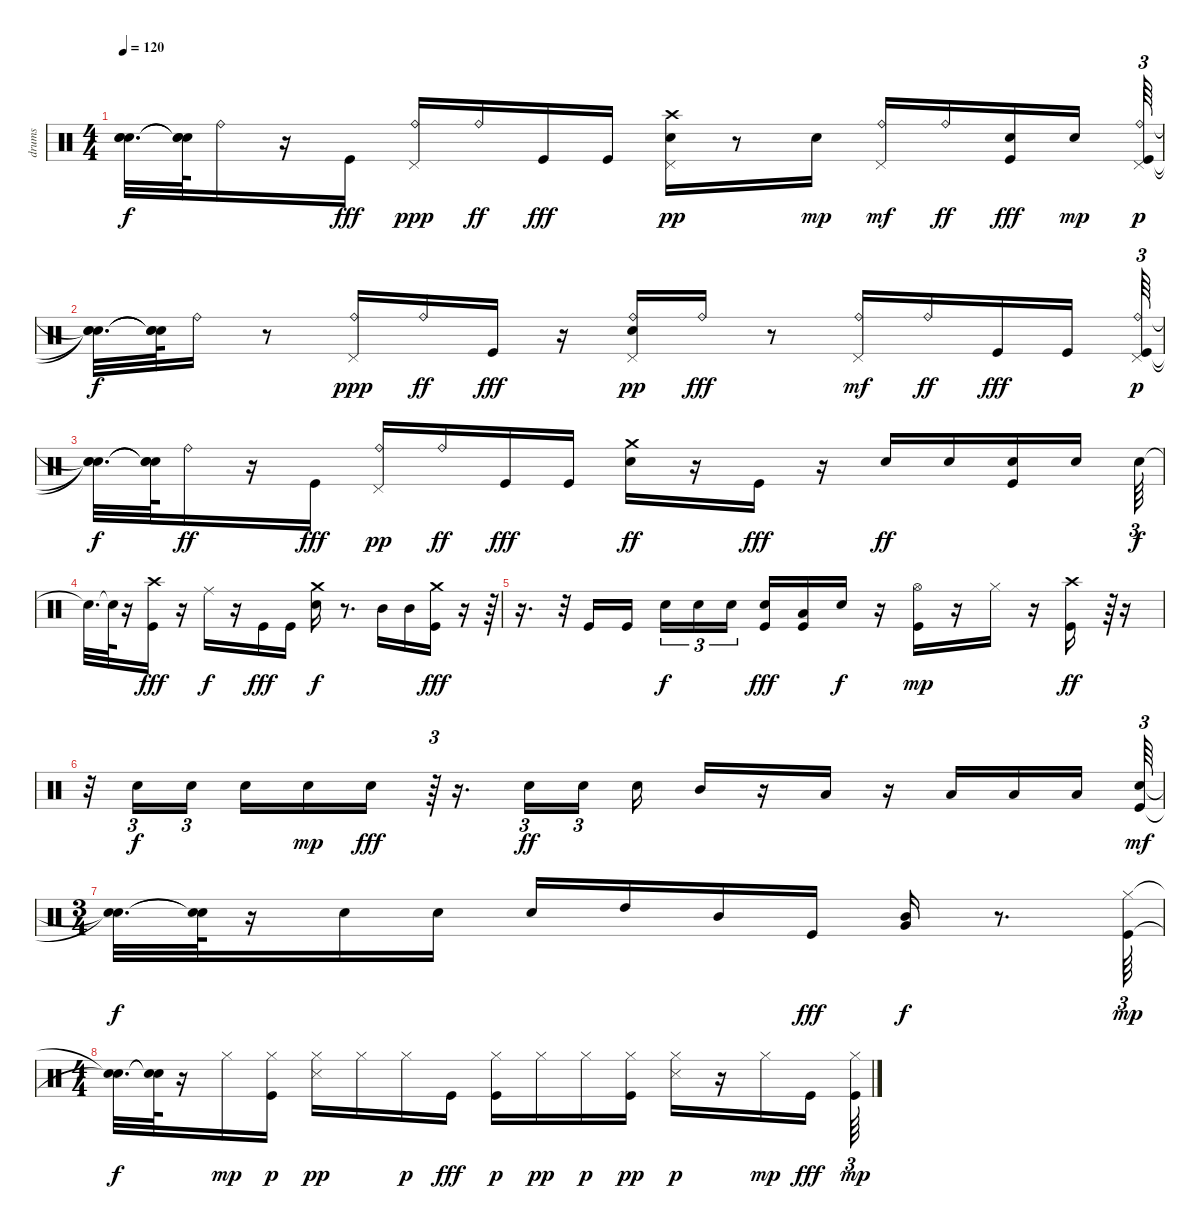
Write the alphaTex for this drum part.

\track ("drums" "drums") {instrument percussion}
\staff {score}
\articulation defaults
\ts (4 4)
\tempo 120
\clef neutral
\ks c
("Snare (hit)"{t} "Snare (hit)"{t} "Snare (hit)"{t}).32{d dy f} ("Snare (hit)"{t} "Snare (hit)"{t} "Snare (hit)"{t}).64 "Ride (bell)".16 r.16 "Kick (hit)".16{dy fff} ("Pedal Hi-Hat (hit)" "Ride (bell)").16{dy ppp} "Ride (bell)".16{dy ff} "Kick (hit)".16{dy fff} "Kick (hit)".16 ("Snare (hit) 2" "Crash high (hit)" "Pedal Hi-Hat (hit)").16{dy pp} r.8 "Snare (hit) 2".16{dy mp} ("Pedal Hi-Hat (hit)" "Ride (bell)").16{dy mf} "Ride (bell)".16{dy ff} ("Snare (hit) 2" "Kick (hit)").16{dy fff} "Snare (hit) 2".16{dy mp} ("Kick (hit)" "Pedal Hi-Hat (hit)" "Ride (bell)").64{tu (3 2) dy p} |
("Snare (hit)"{t} "Snare (hit)"{t} "Snare (hit)"{t}).32{d dy f} ("Snare (hit)"{t} "Snare (hit)"{t} "Snare (hit)"{t}).64 "Ride (bell)".16 r.8 ("Pedal Hi-Hat (hit)" "Ride (bell)").16{dy ppp} "Ride (bell)".16{dy ff} "Kick (hit)".16{dy fff} r.16 ("Snare (hit) 2" "Pedal Hi-Hat (hit)" "Ride (bell)").16{dy pp} "Ride (bell)".16{dy fff} r.8 ("Pedal Hi-Hat (hit)" "Ride (bell)").16{dy mf} "Ride (bell)".16{dy ff} "Kick (hit)".16{dy fff} "Kick (hit)".16 ("Kick (hit)" "Pedal Hi-Hat (hit)" "Ride (bell)").64{tu (3 2) dy p} |
("Snare (hit)"{t} "Snare (hit)"{t} "Snare (hit)"{t}).32{d dy f} ("Snare (hit)"{t} "Snare (hit)"{t} "Snare (hit)"{t}).64 "Ride (bell)".16{dy ff} r.16 "Kick (hit)".16{dy fff} ("Pedal Hi-Hat (hit)" "Ride (bell)").16{dy pp} "Ride (bell)".16{dy ff} "Kick (hit)".16{dy fff} "Kick (hit)".16 ("Snare (hit) 2" "Crash medium (hit)").16{dy ff} r.16 "Kick (hit)".16{dy fff} r.16 "Snare (hit) 2".16{dy ff} "Snare (hit) 2".16 ("Kick (hit)" "Snare (hit) 2").16 "Snare (hit) 2".16 "Snare (hit) 2".64{tu (3 2) dy f} |
"Snare (hit)"{t}.32{d} "Snare (hit)"{t}.64 r.16 ("Kick (hit)" "Crash high (hit)").16{dy fff} r.16 "Ride (middle)".16{dy f} r.16 "Kick (hit)".16{dy fff} "Kick (hit)".16 ("Snare (hit) 2" "Crash medium (hit)").16{dy f} r.8{d} "Mid Tom (hit)".16 "Mid Tom (hit)".16 ("Kick (hit)" "Crash medium (hit)").16{dy fff} r.16 r.64{tu (3 2)} |
r.16{d} r.32{tu (3 2)} "Kick (hit)".16 "Kick (hit)".16{beam splitsecondary} "Snare (hit) 2".16{tu (3 2) dy f} "Snare (hit) 2".16{tu (3 2)} "Snare (hit) 2".16{tu (3 2) beam splitsecondary} ("Snare (hit) 2" "Kick (hit)").16{dy fff} ("Low Tom (hit)" "Kick (hit)").16 "Snare (hit) 2".16{dy f} r.16 ("Kick (hit)" "Hi-Hat (open)").16{dy mp} r.16 "Hi-Hat (closed)".16 r.16 ("Kick (hit)" "Crash high (hit)").16{dy ff} r.64{tu (3 2)} r.16 |
r.32 "Snare (hit) 2".16{tu (3 2) dy f} "Snare (hit) 2".16{tu (3 2) beam splitsecondary} "Snare (hit) 2".16 "Snare (hit) 2".16{dy mp} "Snare (hit) 2".16{dy fff} r.64{tu (3 2)} r.16{d} "Snare (hit) 2".16{tu (3 2) dy ff} "Snare (hit) 2".16{tu (3 2) beam splitsecondary} "Snare (hit) 2".16 "Mid Tom (hit)".16 r.16 "Low Tom (hit)".16 r.16 "Low Tom (hit)".16 "Low Tom (hit)".16 "Low Tom (hit)".16{beam splitsecondary} ("Snare (hit) 2" "Kick (hit)").64{tu (3 2) dy mf} |
\ts (3 4)
("Snare (hit)"{t} "Snare (hit)"{t}).32{d dy f} ("Snare (hit)"{t} "Snare (hit)"{t}).64 r.16 "Snare (hit) 2".16 "Snare (hit) 2".16 "Snare (hit) 2".16 "High Tom (hit)".16 "Mid Tom (hit)".16 "Kick (hit)".16{dy fff} ("Mid Tom (hit)" "Very Low Tom (hit)").16{dy f} r.8{d} ("Kick (hit)" "Hi-Hat (closed)").64{tu (3 2) dy mp} |
\ts (4 4)
("Snare (hit)"{t} "Snare (hit)"{t}).32{d dy f} ("Snare (hit)"{t} "Snare (hit)"{t}).64 r.16 "Hi-Hat (closed)".16{dy mp} ("Kick (hit)" "Hi-Hat (closed)").16{dy p} ("Snare (side stick) 3" "Hi-Hat (closed)").16{dy pp} "Hi-Hat (closed)".16 "Hi-Hat (closed)".16{dy p} "Kick (hit)".16{dy fff} ("Kick (hit)" "Hi-Hat (closed)").16{dy p} "Hi-Hat (closed)".16{dy pp} "Hi-Hat (closed)".16{dy p} ("Kick (hit)" "Hi-Hat (closed)").16{dy pp} ("Snare (side stick) 3" "Hi-Hat (closed)").16{dy p} r.16 "Hi-Hat (closed)".16{dy mp} "Kick (hit)".16{dy fff} ("Kick (hit)" "Hi-Hat (closed)").64{tu (3 2) dy mp}
